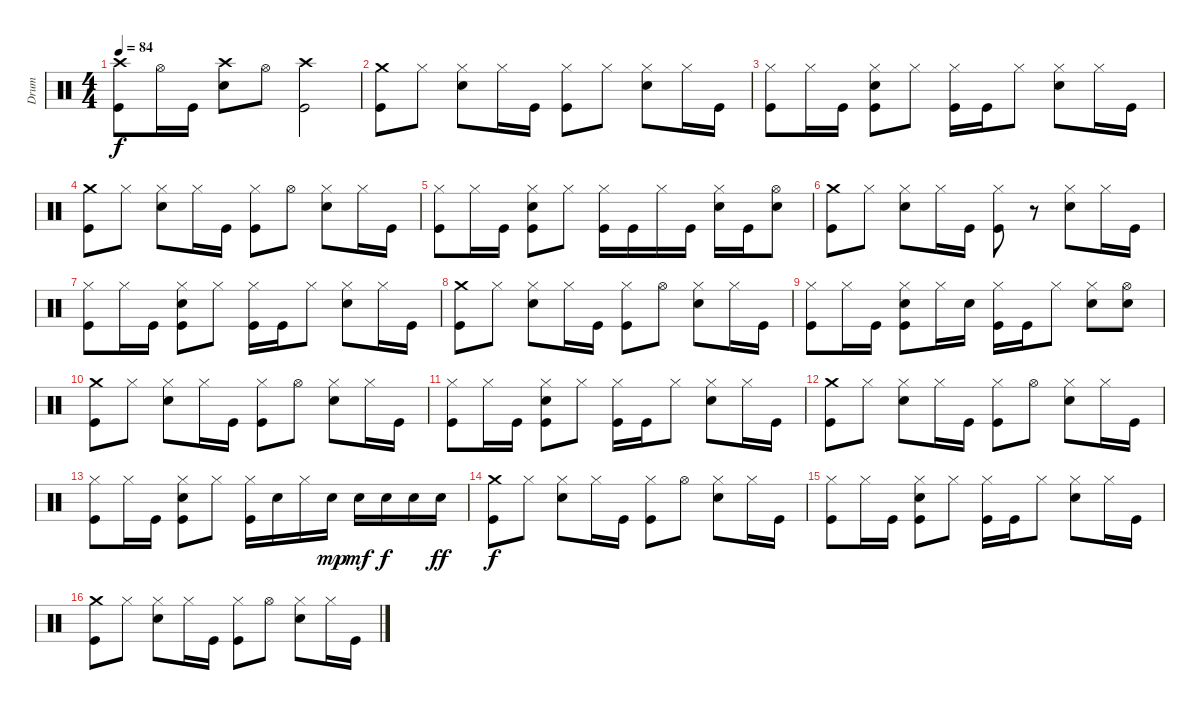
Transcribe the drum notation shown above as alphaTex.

\track ("Drum" "Drum") {instrument percussion}
\staff {score}
\articulation defaults
\ts (4 4)
\tempo 84
\clef neutral
\ks c
("Crash high (hit)" "Kick (hit)").8{dy f} "Hi-Hat (open)".16 "Kick (hit)".16 ("Crash high (hit)" "Electric Snare (hit)").8 "Hi-Hat (open)".8 ("Crash high (hit)" "Kick (hit)").2 |
("Crash medium (hit)" "Kick (hit)").8 "Hi-Hat (closed)".8 ("Hi-Hat (closed)" "Electric Snare (hit)").8 "Hi-Hat (closed)".16 "Kick (hit)".16 ("Hi-Hat (closed)" "Kick (hit)").8 "Hi-Hat (closed)".8 ("Hi-Hat (closed)" "Electric Snare (hit)").8 "Hi-Hat (closed)".16 "Kick (hit)".16 |
("Hi-Hat (closed)" "Kick (hit)").8 "Hi-Hat (closed)".16 "Kick (hit)".16 ("Hi-Hat (closed)" "Electric Snare (hit)" "Kick (hit)").8 "Hi-Hat (closed)".8 ("Hi-Hat (closed)" "Kick (hit)").16 "Kick (hit)".16 "Hi-Hat (closed)".8 ("Hi-Hat (closed)" "Electric Snare (hit)").8 "Hi-Hat (closed)".16 "Kick (hit)".16 |
("Crash medium (hit)" "Kick (hit)").8 "Hi-Hat (closed)".8 ("Hi-Hat (closed)" "Electric Snare (hit)").8 "Hi-Hat (closed)".16 "Kick (hit)".16 ("Hi-Hat (closed)" "Kick (hit)").8 "Hi-Hat (open)".8 ("Hi-Hat (closed)" "Electric Snare (hit)").8 "Hi-Hat (closed)".16 "Kick (hit)".16 |
("Hi-Hat (closed)" "Kick (hit)").8 "Hi-Hat (closed)".16 "Kick (hit)".16 ("Hi-Hat (closed)" "Electric Snare (hit)" "Kick (hit)").8 "Hi-Hat (closed)".8 ("Hi-Hat (closed)" "Kick (hit)").16 "Kick (hit)".16 "Hi-Hat (closed)".16 "Kick (hit)".16 ("Hi-Hat (closed)" "Electric Snare (hit)").16 "Kick (hit)".16 ("Hi-Hat (open)" "Electric Snare (hit)").8 |
("Crash medium (hit)" "Kick (hit)").8 "Hi-Hat (closed)".8 ("Hi-Hat (closed)" "Electric Snare (hit)").8 "Hi-Hat (closed)".16 "Kick (hit)".16 ("Hi-Hat (closed)" "Kick (hit)").8 r.8 ("Hi-Hat (closed)" "Electric Snare (hit)").8 "Hi-Hat (closed)".16 "Kick (hit)".16 |
("Hi-Hat (closed)" "Kick (hit)").8 "Hi-Hat (closed)".16 "Kick (hit)".16 ("Hi-Hat (closed)" "Electric Snare (hit)" "Kick (hit)").8 "Hi-Hat (closed)".8 ("Hi-Hat (closed)" "Kick (hit)").16 "Kick (hit)".16 "Hi-Hat (closed)".8 ("Hi-Hat (closed)" "Electric Snare (hit)").8 "Hi-Hat (closed)".16 "Kick (hit)".16 |
("Crash medium (hit)" "Kick (hit)").8 "Hi-Hat (closed)".8 ("Hi-Hat (closed)" "Electric Snare (hit)").8 "Hi-Hat (closed)".16 "Kick (hit)".16 ("Hi-Hat (closed)" "Kick (hit)").8 "Hi-Hat (open)".8 ("Hi-Hat (closed)" "Electric Snare (hit)").8 "Hi-Hat (closed)".16 "Kick (hit)".16 |
("Hi-Hat (closed)" "Kick (hit)").8 "Hi-Hat (closed)".16 "Kick (hit)".16 ("Hi-Hat (closed)" "Electric Snare (hit)" "Kick (hit)").8 "Hi-Hat (closed)".16 "Electric Snare (hit)".16 ("Hi-Hat (closed)" "Kick (hit)").16 "Kick (hit)".16 "Hi-Hat (closed)".8 ("Hi-Hat (closed)" "Electric Snare (hit)").8 ("Hi-Hat (open)" "Electric Snare (hit)").8 |
("Crash medium (hit)" "Kick (hit)").8 "Hi-Hat (closed)".8 ("Hi-Hat (closed)" "Electric Snare (hit)").8 "Hi-Hat (closed)".16 "Kick (hit)".16 ("Hi-Hat (closed)" "Kick (hit)").8 "Hi-Hat (open)".8 ("Hi-Hat (closed)" "Electric Snare (hit)").8 "Hi-Hat (closed)".16 "Kick (hit)".16 |
("Hi-Hat (closed)" "Kick (hit)").8 "Hi-Hat (closed)".16 "Kick (hit)".16 ("Hi-Hat (closed)" "Electric Snare (hit)" "Kick (hit)").8 "Hi-Hat (closed)".8 ("Hi-Hat (closed)" "Kick (hit)").16 "Kick (hit)".16 "Hi-Hat (closed)".8 ("Hi-Hat (closed)" "Electric Snare (hit)").8 "Hi-Hat (closed)".16 "Kick (hit)".16 |
("Crash medium (hit)" "Kick (hit)").8 "Hi-Hat (closed)".8 ("Hi-Hat (closed)" "Electric Snare (hit)").8 "Hi-Hat (closed)".16 "Kick (hit)".16 ("Hi-Hat (closed)" "Kick (hit)").8 "Hi-Hat (open)".8 ("Hi-Hat (closed)" "Electric Snare (hit)").8 "Hi-Hat (closed)".16 "Kick (hit)".16 |
("Hi-Hat (closed)" "Kick (hit)").8 "Hi-Hat (closed)".16 "Kick (hit)".16 ("Hi-Hat (closed)" "Electric Snare (hit)" "Kick (hit)").8 "Hi-Hat (closed)".8 ("Hi-Hat (closed)" "Kick (hit)").16 "Electric Snare (hit)".16 "Hi-Hat (closed)".16 "Electric Snare (hit)".16{dy mp} "Electric Snare (hit)".16{dy mf} "Electric Snare (hit)".16{dy f} "Electric Snare (hit)".16 "Electric Snare (hit)".16{dy ff} |
("Crash medium (hit)" "Kick (hit)").8{dy f} "Hi-Hat (closed)".8 ("Hi-Hat (closed)" "Electric Snare (hit)").8 "Hi-Hat (closed)".16 "Kick (hit)".16 ("Hi-Hat (closed)" "Kick (hit)").8 "Hi-Hat (open)".8 ("Hi-Hat (closed)" "Electric Snare (hit)").8 "Hi-Hat (closed)".16 "Kick (hit)".16 |
("Hi-Hat (closed)" "Kick (hit)").8 "Hi-Hat (closed)".16 "Kick (hit)".16 ("Hi-Hat (closed)" "Electric Snare (hit)" "Kick (hit)").8 "Hi-Hat (closed)".8 ("Hi-Hat (closed)" "Kick (hit)").16 "Kick (hit)".16 "Hi-Hat (closed)".8 ("Hi-Hat (closed)" "Electric Snare (hit)").8 "Hi-Hat (closed)".16 "Kick (hit)".16 |
("Crash medium (hit)" "Kick (hit)").8 "Hi-Hat (closed)".8 ("Hi-Hat (closed)" "Electric Snare (hit)").8 "Hi-Hat (closed)".16 "Kick (hit)".16 ("Hi-Hat (closed)" "Kick (hit)").8 "Hi-Hat (open)".8 ("Hi-Hat (closed)" "Electric Snare (hit)").8 "Hi-Hat (closed)".16 "Kick (hit)".16
